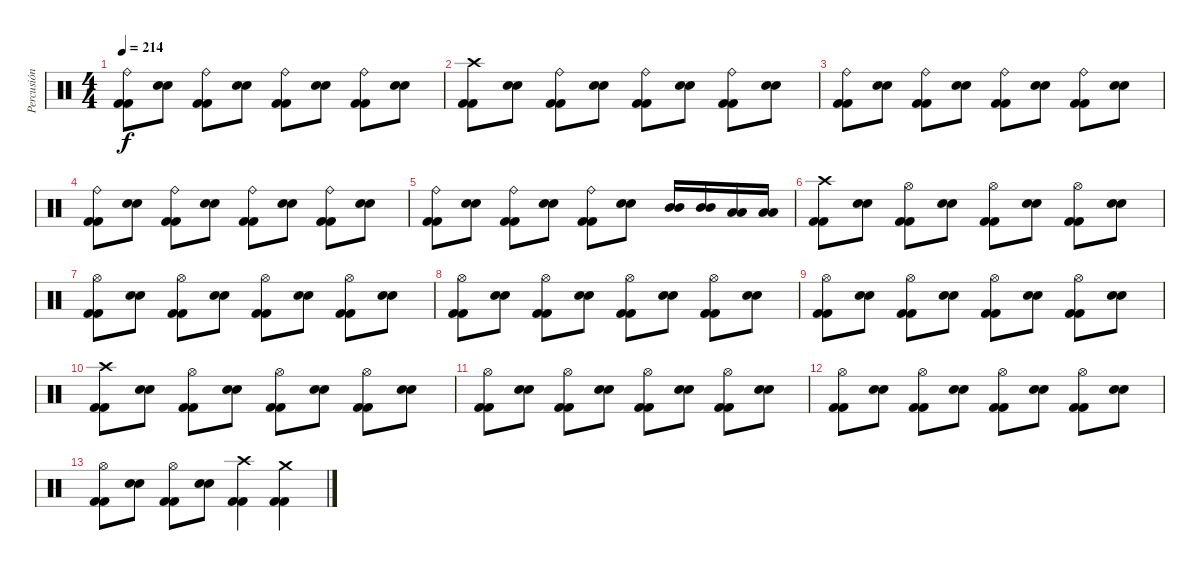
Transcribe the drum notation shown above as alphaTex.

\track ("Percusión" "Percusión") {instrument percussion}
\staff {score}
\articulation defaults
\ts (4 4)
\tempo 214
\clef neutral
\ks c
("Kick (hit) 2" "Kick (hit) 2" "Ride (bell)").8{dy f} ("Electric Snare (hit)" "Electric Snare (hit)").8 ("Kick (hit) 2" "Kick (hit) 2" "Ride (bell)").8 ("Electric Snare (hit)" "Electric Snare (hit)").8 ("Kick (hit) 2" "Kick (hit) 2" "Ride (bell)").8 ("Electric Snare (hit)" "Electric Snare (hit)").8 ("Kick (hit) 2" "Kick (hit) 2" "Ride (bell)").8 ("Electric Snare (hit)" "Electric Snare (hit)").8 |
("Kick (hit) 2" "Kick (hit) 2" "Crash high (hit)").8 ("Electric Snare (hit)" "Electric Snare (hit)").8 ("Kick (hit) 2" "Kick (hit) 2" "Ride (bell)").8 ("Electric Snare (hit)" "Electric Snare (hit)").8 ("Kick (hit) 2" "Kick (hit) 2" "Ride (bell)").8 ("Electric Snare (hit)" "Electric Snare (hit)").8 ("Kick (hit) 2" "Kick (hit) 2" "Ride (bell)").8 ("Electric Snare (hit)" "Electric Snare (hit)").8 |
("Kick (hit) 2" "Kick (hit) 2" "Ride (bell)").8 ("Electric Snare (hit)" "Electric Snare (hit)").8 ("Kick (hit) 2" "Kick (hit) 2" "Ride (bell)").8 ("Electric Snare (hit)" "Electric Snare (hit)").8 ("Kick (hit) 2" "Kick (hit) 2" "Ride (bell)").8 ("Electric Snare (hit)" "Electric Snare (hit)").8 ("Kick (hit) 2" "Kick (hit) 2" "Ride (bell)").8 ("Electric Snare (hit)" "Electric Snare (hit)").8 |
("Kick (hit) 2" "Kick (hit) 2" "Ride (bell)").8 ("Electric Snare (hit)" "Electric Snare (hit)").8 ("Kick (hit) 2" "Kick (hit) 2" "Ride (bell)").8 ("Electric Snare (hit)" "Electric Snare (hit)").8 ("Kick (hit) 2" "Kick (hit) 2" "Ride (bell)").8 ("Electric Snare (hit)" "Electric Snare (hit)").8 ("Kick (hit) 2" "Kick (hit) 2" "Ride (bell)").8 ("Electric Snare (hit)" "Electric Snare (hit)").8 |
("Kick (hit) 2" "Kick (hit) 2" "Ride (bell)").8 ("Electric Snare (hit)" "Electric Snare (hit)").8 ("Kick (hit) 2" "Kick (hit) 2" "Ride (bell)").8 ("Electric Snare (hit)" "Electric Snare (hit)").8 ("Kick (hit) 2" "Kick (hit) 2" "Ride (bell)").8 ("Electric Snare (hit)" "Electric Snare (hit)").8 ("Mid Tom (hit)" "Mid Tom (hit)").16 ("Mid Tom (hit)" "Mid Tom (hit)").16 ("Low Floor Tom (hit)" "Low Floor Tom (hit)").16 ("Low Floor Tom (hit)" "Low Floor Tom (hit)").16 |
("Kick (hit) 2" "Kick (hit) 2" "Crash high (hit)").8 ("Electric Snare (hit)" "Electric Snare (hit)").8 ("Kick (hit) 2" "Kick (hit) 2" "Hi-Hat (open)").8 ("Electric Snare (hit)" "Electric Snare (hit)").8 ("Kick (hit) 2" "Kick (hit) 2" "Hi-Hat (open)").8 ("Electric Snare (hit)" "Electric Snare (hit)").8 ("Kick (hit) 2" "Kick (hit) 2" "Hi-Hat (open)").8 ("Electric Snare (hit)" "Electric Snare (hit)").8 |
("Kick (hit) 2" "Kick (hit) 2" "Hi-Hat (open)").8 ("Electric Snare (hit)" "Electric Snare (hit)").8 ("Kick (hit) 2" "Kick (hit) 2" "Hi-Hat (open)").8 ("Electric Snare (hit)" "Electric Snare (hit)").8 ("Kick (hit) 2" "Kick (hit) 2" "Hi-Hat (open)").8 ("Electric Snare (hit)" "Electric Snare (hit)").8 ("Kick (hit) 2" "Kick (hit) 2" "Hi-Hat (open)").8 ("Electric Snare (hit)" "Electric Snare (hit)").8 |
("Kick (hit) 2" "Kick (hit) 2" "Hi-Hat (open)").8 ("Electric Snare (hit)" "Electric Snare (hit)").8 ("Kick (hit) 2" "Kick (hit) 2" "Hi-Hat (open)").8 ("Electric Snare (hit)" "Electric Snare (hit)").8 ("Kick (hit) 2" "Kick (hit) 2" "Hi-Hat (open)").8 ("Electric Snare (hit)" "Electric Snare (hit)").8 ("Kick (hit) 2" "Kick (hit) 2" "Hi-Hat (open)").8 ("Electric Snare (hit)" "Electric Snare (hit)").8 |
("Kick (hit) 2" "Kick (hit) 2" "Hi-Hat (open)").8 ("Electric Snare (hit)" "Electric Snare (hit)").8 ("Kick (hit) 2" "Kick (hit) 2" "Hi-Hat (open)").8 ("Electric Snare (hit)" "Electric Snare (hit)").8 ("Kick (hit) 2" "Kick (hit) 2" "Hi-Hat (open)").8 ("Electric Snare (hit)" "Electric Snare (hit)").8 ("Kick (hit) 2" "Kick (hit) 2" "Hi-Hat (open)").8 ("Electric Snare (hit)" "Electric Snare (hit)").8 |
("Kick (hit) 2" "Kick (hit) 2" "Crash high (hit)").8 ("Electric Snare (hit)" "Electric Snare (hit)").8 ("Kick (hit) 2" "Kick (hit) 2" "Hi-Hat (open)").8 ("Electric Snare (hit)" "Electric Snare (hit)").8 ("Kick (hit) 2" "Kick (hit) 2" "Hi-Hat (open)").8 ("Electric Snare (hit)" "Electric Snare (hit)").8 ("Kick (hit) 2" "Kick (hit) 2" "Hi-Hat (open)").8 ("Electric Snare (hit)" "Electric Snare (hit)").8 |
("Kick (hit) 2" "Kick (hit) 2" "Hi-Hat (open)").8 ("Electric Snare (hit)" "Electric Snare (hit)").8 ("Kick (hit) 2" "Kick (hit) 2" "Hi-Hat (open)").8 ("Electric Snare (hit)" "Electric Snare (hit)").8 ("Kick (hit) 2" "Kick (hit) 2" "Hi-Hat (open)").8 ("Electric Snare (hit)" "Electric Snare (hit)").8 ("Kick (hit) 2" "Kick (hit) 2" "Hi-Hat (open)").8 ("Electric Snare (hit)" "Electric Snare (hit)").8 |
("Kick (hit) 2" "Kick (hit) 2" "Hi-Hat (open)").8 ("Electric Snare (hit)" "Electric Snare (hit)").8 ("Kick (hit) 2" "Kick (hit) 2" "Hi-Hat (open)").8 ("Electric Snare (hit)" "Electric Snare (hit)").8 ("Kick (hit) 2" "Kick (hit) 2" "Hi-Hat (open)").8 ("Electric Snare (hit)" "Electric Snare (hit)").8 ("Kick (hit) 2" "Kick (hit) 2" "Hi-Hat (open)").8 ("Electric Snare (hit)" "Electric Snare (hit)").8 |
("Kick (hit) 2" "Kick (hit) 2" "Hi-Hat (open)").8 ("Electric Snare (hit)" "Electric Snare (hit)").8 ("Kick (hit) 2" "Kick (hit) 2" "Hi-Hat (open)").8 ("Electric Snare (hit)" "Electric Snare (hit)").8 ("Kick (hit) 2" "Kick (hit) 2" "Crash high (hit)").4 ("Kick (hit) 2" "Kick (hit) 2" "Crash medium (hit)").4
